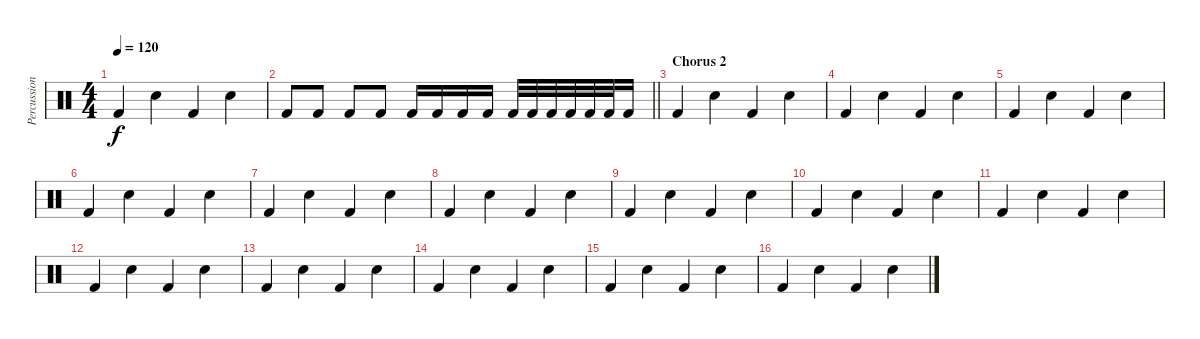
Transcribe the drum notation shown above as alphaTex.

\track ("Percussion" "Percussion") {instrument percussion}
\staff {score}
\articulation defaults
\ts (4 4)
\tempo 120
\clef neutral
\ks c "Kick (hit) 2".4{dy f} "Electric Snare (hit)".4 "Kick (hit) 2".4 "Electric Snare (hit)".4
|
\barLineRight lightlight "Kick (hit) 2".8 "Kick (hit) 2".8 "Kick (hit) 2".8 "Kick (hit) 2".8 "Kick (hit) 2".16 "Kick (hit) 2".16 "Kick (hit) 2".16 "Kick (hit) 2".16 "Kick (hit) 2".32 "Kick (hit) 2".32 "Kick (hit) 2".32 "Kick (hit) 2".32 "Kick (hit) 2".32 "Kick (hit) 2".32 "Kick (hit) 2".16
|
\section ("" "Chorus 2")
"Kick (hit) 2".4 "Electric Snare (hit)".4 "Kick (hit) 2".4 "Electric Snare (hit)".4 |
"Kick (hit) 2".4 "Electric Snare (hit)".4 "Kick (hit) 2".4 "Electric Snare (hit)".4 |
"Kick (hit) 2".4 "Electric Snare (hit)".4 "Kick (hit) 2".4 "Electric Snare (hit)".4 |
"Kick (hit) 2".4 "Electric Snare (hit)".4 "Kick (hit) 2".4 "Electric Snare (hit)".4 |
"Kick (hit) 2".4 "Electric Snare (hit)".4 "Kick (hit) 2".4 "Electric Snare (hit)".4 |
"Kick (hit) 2".4 "Electric Snare (hit)".4 "Kick (hit) 2".4 "Electric Snare (hit)".4 |
"Kick (hit) 2".4 "Electric Snare (hit)".4 "Kick (hit) 2".4 "Electric Snare (hit)".4 |
"Kick (hit) 2".4 "Electric Snare (hit)".4 "Kick (hit) 2".4 "Electric Snare (hit)".4 |
"Kick (hit) 2".4 "Electric Snare (hit)".4 "Kick (hit) 2".4 "Electric Snare (hit)".4 |
"Kick (hit) 2".4 "Electric Snare (hit)".4 "Kick (hit) 2".4 "Electric Snare (hit)".4 |
"Kick (hit) 2".4 "Electric Snare (hit)".4 "Kick (hit) 2".4 "Electric Snare (hit)".4 |
"Kick (hit) 2".4 "Electric Snare (hit)".4 "Kick (hit) 2".4 "Electric Snare (hit)".4 |
"Kick (hit) 2".4 "Electric Snare (hit)".4 "Kick (hit) 2".4 "Electric Snare (hit)".4 |
"Kick (hit) 2".4 "Electric Snare (hit)".4 "Kick (hit) 2".4 "Electric Snare (hit)".4
